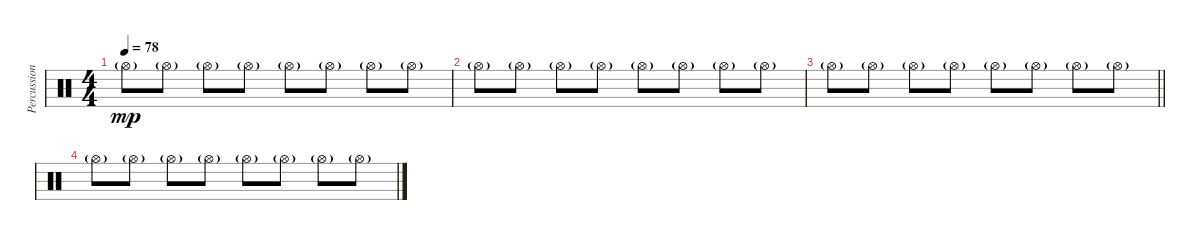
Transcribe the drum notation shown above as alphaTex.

\track ("Percussion" "Percussion") {instrument percussion}
\staff {score}
\articulation defaults
\ts (4 4)
\tempo 78
\clef neutral
\ks c "Hi-Hat (open)"{g}.8{dy mp} "Hi-Hat (open)"{g}.8 "Hi-Hat (open)"{g}.8 "Hi-Hat (open)"{g}.8 "Hi-Hat (open)"{g}.8 "Hi-Hat (open)"{g}.8 "Hi-Hat (open)"{g}.8 "Hi-Hat (open)"{g}.8
|
"Hi-Hat (open)"{g}.8 "Hi-Hat (open)"{g}.8 "Hi-Hat (open)"{g}.8 "Hi-Hat (open)"{g}.8 "Hi-Hat (open)"{g}.8 "Hi-Hat (open)"{g}.8 "Hi-Hat (open)"{g}.8 "Hi-Hat (open)"{g}.8 |
\barLineRight lightlight "Hi-Hat (open)"{g}.8 "Hi-Hat (open)"{g}.8 "Hi-Hat (open)"{g}.8 "Hi-Hat (open)"{g}.8 "Hi-Hat (open)"{g}.8 "Hi-Hat (open)"{g}.8 "Hi-Hat (open)"{g}.8 "Hi-Hat (open)"{g}.8
|
"Hi-Hat (open)"{g}.8 "Hi-Hat (open)"{g}.8 "Hi-Hat (open)"{g}.8 "Hi-Hat (open)"{g}.8 "Hi-Hat (open)"{g}.8 "Hi-Hat (open)"{g}.8 "Hi-Hat (open)"{g}.8 "Hi-Hat (open)"{g}.8
